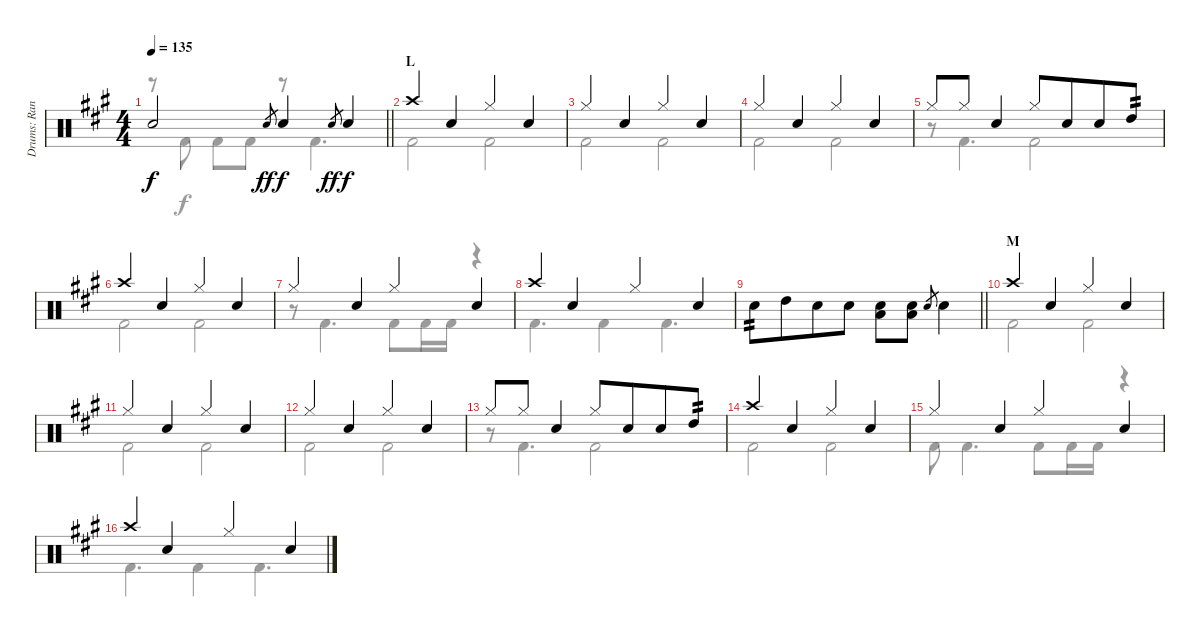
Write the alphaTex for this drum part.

\track ("Drums: Randy" "Drums: Ran") {instrument percussion}
\staff {score}
\articulation defaults
\voice
\ts (4 4)
\tempo 135
\clef neutral
\barLineRight lightlight
\ks a "Snare (hit) 2".2{dy f} "Electric Snare (hit)".8{gr dy ff} "Snare (hit) 2".4{dy f} "Electric Snare (hit)".8{gr dy ff} "Snare (hit) 2".4{dy f}
|
\section ("" "L")
"Crash high (hit)".4 "Snare (hit) 2".4 "Hi-Hat (closed)".4 "Snare (hit) 2".4 |
"Hi-Hat (closed)".4 "Snare (hit) 2".4 "Hi-Hat (closed)".4 "Snare (hit) 2".4 |
"Hi-Hat (closed)".4 "Snare (hit) 2".4 "Hi-Hat (closed)".4 "Snare (hit) 2".4 |
"Hi-Hat (closed)".8 "Hi-Hat (closed)".8 "Snare (hit) 2".4 "Hi-Hat (closed)".8 "Snare (hit) 2".8{beam merge} "Snare (hit) 2".8 "High Tom (hit)".8{tp 2} |
"Crash high (hit)".4 "Snare (hit) 2".4 "Hi-Hat (closed)".4 "Snare (hit) 2".4 |
"Hi-Hat (closed)".4 "Snare (hit) 2".4 "Hi-Hat (closed)".4 "Snare (hit) 2".4 |
"Crash high (hit)".4 "Snare (hit) 2".4 "Hi-Hat (closed)".4 "Snare (hit) 2".4 |
\barLineRight lightlight "Snare (hit) 2".8{tp 2} "High Tom (hit)".8{beam merge} "Snare (hit) 2".8 "Snare (hit) 2".8
("Snare (hit) 2" "Low Tom (hit)").8 ("Snare (hit) 2" "Low Tom (hit)").8 "Electric Snare (hit)".8{gr} "Snare (hit) 2".4 |
\section ("" "M")
"Crash high (hit)".4 "Snare (hit) 2".4 "Hi-Hat (closed)".4 "Snare (hit) 2".4 |
"Hi-Hat (closed)".4 "Snare (hit) 2".4 "Hi-Hat (closed)".4 "Snare (hit) 2".4 |
"Hi-Hat (closed)".4 "Snare (hit) 2".4 "Hi-Hat (closed)".4 "Snare (hit) 2".4 |
"Hi-Hat (closed)".8 "Hi-Hat (closed)".8 "Snare (hit) 2".4 "Hi-Hat (closed)".8 "Snare (hit) 2".8{beam merge} "Snare (hit) 2".8 "High Tom (hit)".8{tp 2} |
"Crash high (hit)".4 "Snare (hit) 2".4 "Hi-Hat (closed)".4 "Snare (hit) 2".4 |
"Hi-Hat (closed)".4 "Snare (hit) 2".4 "Hi-Hat (closed)".4 "Snare (hit) 2".4 |
"Crash high (hit)".4 "Snare (hit) 2".4 "Hi-Hat (closed)".4 "Snare (hit) 2".4
\voice
\clef neutral
\ottava regular
\simile none
\barLineRight lightlight
\ks a
r.8{dy f} "Kick (hit) 2".8 "Kick (hit) 2".8 "Kick (hit) 2".8 r.8 "Kick (hit) 2".4{d} |
"Kick (hit) 2".2 "Kick (hit) 2".2 |
"Kick (hit) 2".2 "Kick (hit) 2".2 |
"Kick (hit) 2".2 "Kick (hit) 2".2 |
r.8 "Kick (hit) 2".4{d} "Kick (hit) 2".2 |
"Kick (hit) 2".2 "Kick (hit) 2".2 |
r.8 "Kick (hit) 2".4{d} "Kick (hit) 2".8 "Kick (hit) 2".16 "Kick (hit) 2".16 r.4 |
"Kick (hit) 2".4{d} "Kick (hit) 2".4 "Kick (hit) 2".4{d} |
\barLineRight lightlight
|
"Kick (hit) 2".2 "Kick (hit) 2".2 |
"Kick (hit) 2".2 "Kick (hit) 2".2 |
"Kick (hit) 2".2 "Kick (hit) 2".2 |
r.8 "Kick (hit) 2".4{d} "Kick (hit) 2".2 |
"Kick (hit) 2".2 "Kick (hit) 2".2 |
"Kick (hit) 2".8 "Kick (hit) 2".4{d} "Kick (hit) 2".8 "Kick (hit) 2".16 "Kick (hit) 2".16 r.4 |
"Kick (hit) 2".4{d} "Kick (hit) 2".4 "Kick (hit) 2".4{d}
